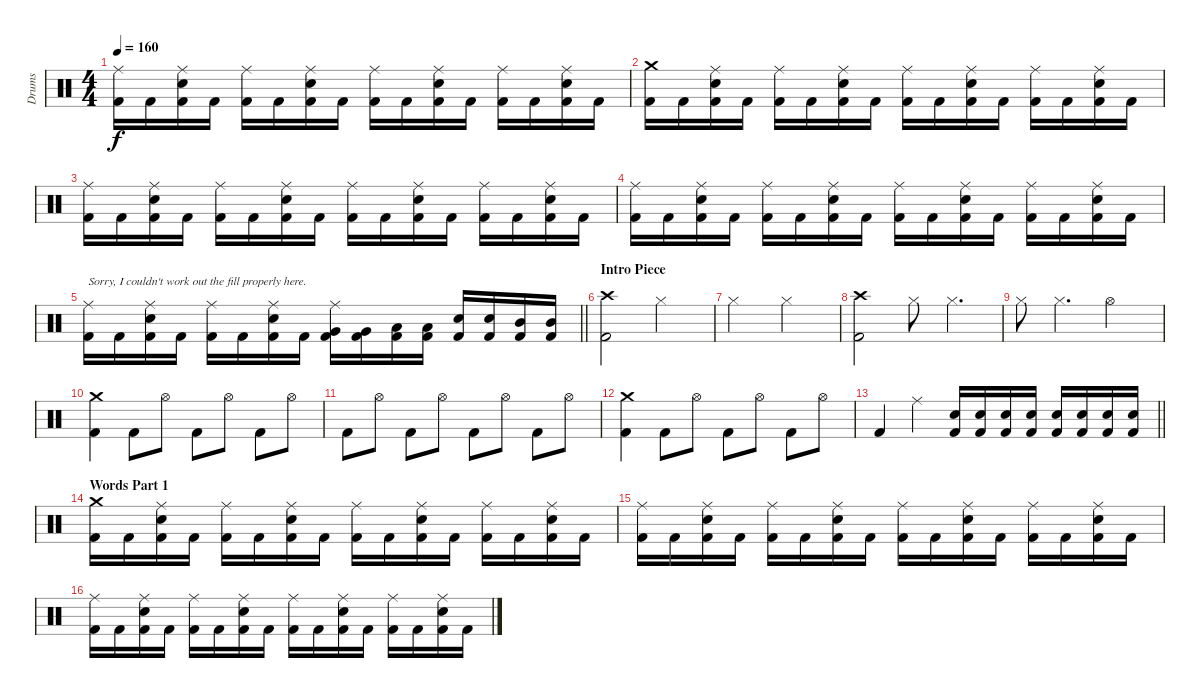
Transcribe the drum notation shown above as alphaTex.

\track ("Drums" "Drums") {instrument percussion}
\staff {score}
\articulation defaults
\ts (4 4)
\tempo 160
\clef neutral
\ks c
("Ride (middle)" "Kick (hit) 2").16{dy f} "Kick (hit) 2".16 ("Ride (middle)" "Snare (hit) 2" "Kick (hit) 2").16 "Kick (hit) 2".16 ("Ride (middle)" "Kick (hit) 2").16 "Kick (hit) 2".16 ("Ride (middle)" "Snare (hit) 2" "Kick (hit) 2").16 "Kick (hit) 2".16 ("Ride (middle)" "Kick (hit) 2").16 "Kick (hit) 2".16 ("Ride (middle)" "Snare (hit) 2" "Kick (hit) 2").16 "Kick (hit) 2".16 ("Ride (middle)" "Kick (hit) 2").16 "Kick (hit) 2".16 ("Ride (middle)" "Snare (hit) 2" "Kick (hit) 2").16 "Kick (hit) 2".16 |
("Crash medium (hit)" "Kick (hit) 2").16 "Kick (hit) 2".16 ("Ride (middle)" "Snare (hit) 2" "Kick (hit) 2").16 "Kick (hit) 2".16 ("Ride (middle)" "Kick (hit) 2").16 "Kick (hit) 2".16 ("Ride (middle)" "Snare (hit) 2" "Kick (hit) 2").16 "Kick (hit) 2".16 ("Ride (middle)" "Kick (hit) 2").16 "Kick (hit) 2".16 ("Ride (middle)" "Snare (hit) 2" "Kick (hit) 2").16 "Kick (hit) 2".16 ("Ride (middle)" "Kick (hit) 2").16 "Kick (hit) 2".16 ("Ride (middle)" "Snare (hit) 2" "Kick (hit) 2").16 "Kick (hit) 2".16 |
("Ride (middle)" "Kick (hit) 2").16 "Kick (hit) 2".16 ("Ride (middle)" "Snare (hit) 2" "Kick (hit) 2").16 "Kick (hit) 2".16 ("Ride (middle)" "Kick (hit) 2").16 "Kick (hit) 2".16 ("Ride (middle)" "Snare (hit) 2" "Kick (hit) 2").16 "Kick (hit) 2".16 ("Ride (middle)" "Kick (hit) 2").16 "Kick (hit) 2".16 ("Ride (middle)" "Snare (hit) 2" "Kick (hit) 2").16 "Kick (hit) 2".16 ("Ride (middle)" "Kick (hit) 2").16 "Kick (hit) 2".16 ("Ride (middle)" "Snare (hit) 2" "Kick (hit) 2").16 "Kick (hit) 2".16 |
("Ride (middle)" "Kick (hit) 2").16 "Kick (hit) 2".16 ("Ride (middle)" "Snare (hit) 2" "Kick (hit) 2").16 "Kick (hit) 2".16 ("Ride (middle)" "Kick (hit) 2").16 "Kick (hit) 2".16 ("Ride (middle)" "Snare (hit) 2" "Kick (hit) 2").16 "Kick (hit) 2".16 ("Ride (middle)" "Kick (hit) 2").16 "Kick (hit) 2".16 ("Ride (middle)" "Snare (hit) 2" "Kick (hit) 2").16 "Kick (hit) 2".16 ("Ride (middle)" "Kick (hit) 2").16 "Kick (hit) 2".16 ("Ride (middle)" "Snare (hit) 2" "Kick (hit) 2").16 "Kick (hit) 2".16 |
\barLineRight lightlight
("Ride (middle)" "Kick (hit) 2").16{txt "Sorry, I couldn't work out the fill properly here."} "Kick (hit) 2".16 ("Ride (middle)" "Snare (hit) 2" "Kick (hit) 2").16 "Kick (hit) 2".16 ("Ride (middle)" "Kick (hit) 2").16 "Kick (hit) 2".16 ("Ride (middle)" "Snare (hit) 2" "Kick (hit) 2").16 "Kick (hit) 2".16 ("Ride (middle)" "Very Low Tom (hit)" "Kick (hit) 2").16 ("Very Low Tom (hit)" "Kick (hit) 2").16 ("Low Tom (hit)" "Kick (hit) 2").16 ("Low Tom (hit)" "Kick (hit) 2").16 ("Snare (hit) 2" "Kick (hit) 2").16 ("Snare (hit) 2" "Kick (hit) 2").16 ("Mid Tom (hit)" "Kick (hit) 2").16 ("Mid Tom (hit)" "Kick (hit) 2").16 |
\section ("" "Intro Piece")
("Crash high (hit)" "Kick (hit) 2").2 "Hi-Hat (closed)".2 |
"Hi-Hat (closed)".2 "Hi-Hat (closed)".2 |
("Crash high (hit)" "Kick (hit) 2").2 "Hi-Hat (closed)".8 "Hi-Hat (closed)".4{d} |
"Hi-Hat (closed)".8 "Hi-Hat (closed)".4{d} "Hi-Hat (open)".2 |
("Crash medium (hit)" "Kick (hit) 2").4 "Kick (hit) 2".8 "Hi-Hat (open)".8 "Kick (hit) 2".8 "Hi-Hat (open)".8 "Kick (hit) 2".8 "Hi-Hat (open)".8 |
"Kick (hit) 2".8 "Hi-Hat (open)".8 "Kick (hit) 2".8 "Hi-Hat (open)".8 "Kick (hit) 2".8 "Hi-Hat (open)".8 "Kick (hit) 2".8 "Hi-Hat (open)".8 |
("Crash medium (hit)" "Kick (hit) 2").4 "Kick (hit) 2".8 "Hi-Hat (open)".8 "Kick (hit) 2".8 "Hi-Hat (open)".8 "Kick (hit) 2".8 "Hi-Hat (open)".8 |
\barLineRight lightlight "Kick (hit) 2".4 "Ride (middle)".4
("Snare (hit) 2" "Kick (hit) 2").16 ("Snare (hit) 2" "Kick (hit) 2").16 ("Snare (hit) 2" "Kick (hit) 2").16 ("Snare (hit) 2" "Kick (hit) 2").16 ("Snare (hit) 2" "Kick (hit) 2").16 ("Snare (hit) 2" "Kick (hit) 2").16 ("Snare (hit) 2" "Kick (hit) 2").16 ("Snare (hit) 2" "Kick (hit) 2").16 |
\section ("" "Words Part 1")
("Crash medium (hit)" "Kick (hit) 2").16 "Kick (hit) 2".16 ("Ride (middle)" "Snare (hit) 2" "Kick (hit) 2").16 "Kick (hit) 2".16 ("Ride (middle)" "Kick (hit) 2").16 "Kick (hit) 2".16 ("Ride (middle)" "Snare (hit) 2" "Kick (hit) 2").16 "Kick (hit) 2".16 ("Ride (middle)" "Kick (hit) 2").16 "Kick (hit) 2".16 ("Ride (middle)" "Snare (hit) 2" "Kick (hit) 2").16 "Kick (hit) 2".16 ("Ride (middle)" "Kick (hit) 2").16 "Kick (hit) 2".16 ("Ride (middle)" "Snare (hit) 2" "Kick (hit) 2").16 "Kick (hit) 2".16 |
("Ride (middle)" "Kick (hit) 2").16 "Kick (hit) 2".16 ("Ride (middle)" "Snare (hit) 2" "Kick (hit) 2").16 "Kick (hit) 2".16 ("Ride (middle)" "Kick (hit) 2").16 "Kick (hit) 2".16 ("Ride (middle)" "Snare (hit) 2" "Kick (hit) 2").16 "Kick (hit) 2".16 ("Ride (middle)" "Kick (hit) 2").16 "Kick (hit) 2".16 ("Ride (middle)" "Snare (hit) 2" "Kick (hit) 2").16 "Kick (hit) 2".16 ("Ride (middle)" "Kick (hit) 2").16 "Kick (hit) 2".16 ("Ride (middle)" "Snare (hit) 2" "Kick (hit) 2").16 "Kick (hit) 2".16 |
("Ride (middle)" "Kick (hit) 2").16 "Kick (hit) 2".16 ("Ride (middle)" "Snare (hit) 2" "Kick (hit) 2").16 "Kick (hit) 2".16 ("Ride (middle)" "Kick (hit) 2").16 "Kick (hit) 2".16 ("Ride (middle)" "Snare (hit) 2" "Kick (hit) 2").16 "Kick (hit) 2".16 ("Ride (middle)" "Kick (hit) 2").16 "Kick (hit) 2".16 ("Ride (middle)" "Snare (hit) 2" "Kick (hit) 2").16 "Kick (hit) 2".16 ("Ride (middle)" "Kick (hit) 2").16 "Kick (hit) 2".16 ("Ride (middle)" "Snare (hit) 2" "Kick (hit) 2").16 "Kick (hit) 2".16
